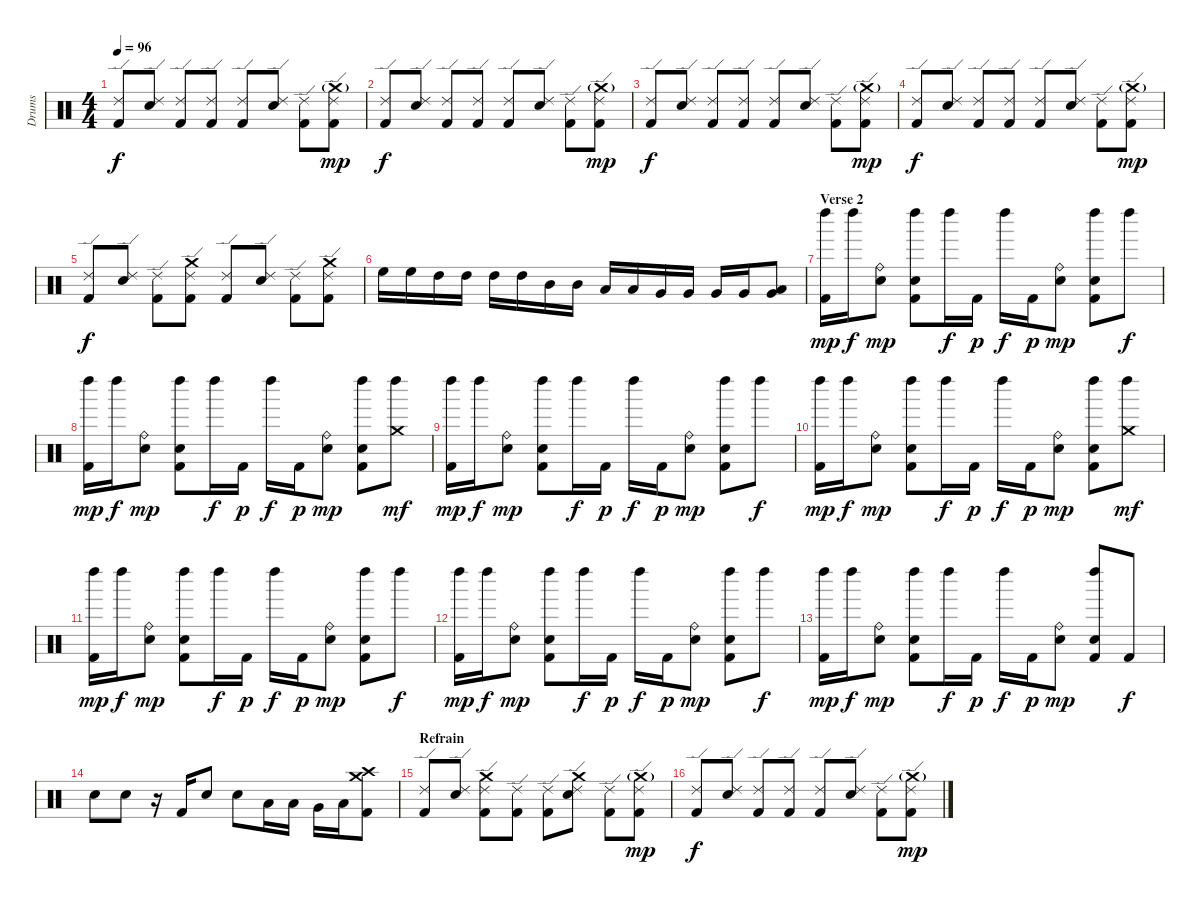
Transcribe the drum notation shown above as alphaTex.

\track ("Drums" "Drums") {instrument percussion}
\staff {score}
\articulation defaults
\ts (4 4)
\tempo 96
\clef neutral
\ks c
("Ride (edge) 2" "Kick (hit) 2").8{dy f} ("Ride (edge) 2" "Snare (hit) 2").8 ("Ride (edge) 2" "Kick (hit) 2").8 ("Ride (edge) 2" "Kick (hit) 2").8 ("Ride (edge) 2" "Kick (hit) 2").8 ("Ride (edge) 2" "Snare (hit) 2").8 ("Ride (edge) 2" "Kick (hit) 2").8 ("Crash medium (hit)"{g} "Ride (edge) 2" "Kick (hit) 2").8{dy mp} |
("Ride (edge) 2" "Kick (hit) 2").8{dy f} ("Ride (edge) 2" "Snare (hit) 2").8 ("Ride (edge) 2" "Kick (hit) 2").8 ("Ride (edge) 2" "Kick (hit) 2").8 ("Ride (edge) 2" "Kick (hit) 2").8 ("Ride (edge) 2" "Snare (hit) 2").8 ("Ride (edge) 2" "Kick (hit) 2").8 ("Crash medium (hit)"{g} "Ride (edge) 2" "Kick (hit) 2").8{dy mp} |
("Ride (edge) 2" "Kick (hit) 2").8{dy f} ("Ride (edge) 2" "Snare (hit) 2").8 ("Ride (edge) 2" "Kick (hit) 2").8 ("Ride (edge) 2" "Kick (hit) 2").8 ("Ride (edge) 2" "Kick (hit) 2").8 ("Ride (edge) 2" "Snare (hit) 2").8 ("Ride (edge) 2" "Kick (hit) 2").8 ("Crash medium (hit)"{g} "Ride (edge) 2" "Kick (hit) 2").8{dy mp} |
("Ride (edge) 2" "Kick (hit) 2").8{dy f} ("Ride (edge) 2" "Snare (hit) 2").8 ("Ride (edge) 2" "Kick (hit) 2").8 ("Ride (edge) 2" "Kick (hit) 2").8 ("Ride (edge) 2" "Kick (hit) 2").8 ("Ride (edge) 2" "Snare (hit) 2").8 ("Ride (edge) 2" "Kick (hit) 2").8 ("Crash medium (hit)"{g} "Ride (edge) 2" "Kick (hit) 2").8{dy mp} |
("Ride (edge) 2" "Kick (hit) 2").8{dy f} ("Ride (edge) 2" "Snare (hit) 2").8 ("Ride (edge) 2" "Kick (hit) 2").8 ("Crash medium (hit)" "Ride (edge) 2" "Kick (hit) 2").8 ("Ride (edge) 2" "Kick (hit) 2").8 ("Ride (edge) 2" "Snare (hit) 2").8 ("Ride (edge) 2" "Kick (hit) 2").8 ("Crash medium (hit)" "Ride (edge) 2" "Kick (hit) 2").8 |
"High Floor Tom (hit)".16{balance 0} "High Floor Tom (hit)".16 "High Tom (hit)".16{balance 3} "High Tom (hit)".16 "High Tom (hit)".16{balance 6} "High Tom (hit)".16 "Mid Tom (hit)".16{balance 8} "Mid Tom (hit)".16 "Low Tom (hit)".16{balance 8} "Low Tom (hit)".16 "Very Low Tom (hit)".16{balance 10} "Very Low Tom (hit)".16 "Very Low Tom (hit)".16{balance 13} "Very Low Tom (hit)".16 ("Low Floor Tom (hit)" "Very Low Tom (hit)").8{balance 16} |
\section ("" "Verse 2")
("Left Maraca (hit)" "Kick (hit) 2").16{dy mp balance 8} "Left Maraca (hit)".16{dy f} ("Snare (hit) 2" "Ride (bell)").8{dy mp} ("Left Maraca (hit)" "Electric Snare (hit)" "Kick (hit) 2").8 "Left Maraca (hit)".16{dy f} "Kick (hit) 2".16{dy p} "Left Maraca (hit)".16{dy f} "Kick (hit) 2".16{dy p} ("Snare (hit) 2" "Ride (bell)").8{dy mp} ("Left Maraca (hit)" "Electric Snare (hit)" "Kick (hit) 2").8 "Left Maraca (hit)".8{dy f} |
("Left Maraca (hit)" "Kick (hit) 2").16{dy mp} "Left Maraca (hit)".16{dy f} ("Snare (hit) 2" "Ride (bell)").8{dy mp} ("Left Maraca (hit)" "Electric Snare (hit)" "Kick (hit) 2").8 "Left Maraca (hit)".16{dy f} "Kick (hit) 2".16{dy p} "Left Maraca (hit)".16{dy f} "Kick (hit) 2".16{dy p} ("Snare (hit) 2" "Ride (bell)").8{dy mp} ("Left Maraca (hit)" "Electric Snare (hit)" "Kick (hit) 2").8 ("Crash medium (hit)" "Left Maraca (hit)").8{dy mf} |
("Left Maraca (hit)" "Kick (hit) 2").16{dy mp} "Left Maraca (hit)".16{dy f} ("Snare (hit) 2" "Ride (bell)").8{dy mp} ("Left Maraca (hit)" "Electric Snare (hit)" "Kick (hit) 2").8 "Left Maraca (hit)".16{dy f} "Kick (hit) 2".16{dy p} "Left Maraca (hit)".16{dy f} "Kick (hit) 2".16{dy p} ("Snare (hit) 2" "Ride (bell)").8{dy mp} ("Left Maraca (hit)" "Electric Snare (hit)" "Kick (hit) 2").8 "Left Maraca (hit)".8{dy f} |
("Left Maraca (hit)" "Kick (hit) 2").16{dy mp} "Left Maraca (hit)".16{dy f} ("Snare (hit) 2" "Ride (bell)").8{dy mp} ("Left Maraca (hit)" "Electric Snare (hit)" "Kick (hit) 2").8 "Left Maraca (hit)".16{dy f} "Kick (hit) 2".16{dy p} "Left Maraca (hit)".16{dy f} "Kick (hit) 2".16{dy p} ("Snare (hit) 2" "Ride (bell)").8{dy mp} ("Left Maraca (hit)" "Electric Snare (hit)" "Kick (hit) 2").8 ("Crash medium (hit)" "Left Maraca (hit)").8{dy mf} |
("Left Maraca (hit)" "Kick (hit) 2").16{dy mp} "Left Maraca (hit)".16{dy f} ("Snare (hit) 2" "Ride (bell)").8{dy mp} ("Left Maraca (hit)" "Electric Snare (hit)" "Kick (hit) 2").8 "Left Maraca (hit)".16{dy f} "Kick (hit) 2".16{dy p} "Left Maraca (hit)".16{dy f} "Kick (hit) 2".16{dy p} ("Snare (hit) 2" "Ride (bell)").8{dy mp} ("Left Maraca (hit)" "Electric Snare (hit)" "Kick (hit) 2").8 "Left Maraca (hit)".8{dy f} |
("Left Maraca (hit)" "Kick (hit) 2").16{dy mp} "Left Maraca (hit)".16{dy f} ("Snare (hit) 2" "Ride (bell)").8{dy mp} ("Left Maraca (hit)" "Electric Snare (hit)" "Kick (hit) 2").8 "Left Maraca (hit)".16{dy f} "Kick (hit) 2".16{dy p} "Left Maraca (hit)".16{dy f} "Kick (hit) 2".16{dy p} ("Snare (hit) 2" "Ride (bell)").8{dy mp} ("Left Maraca (hit)" "Electric Snare (hit)" "Kick (hit) 2").8 "Left Maraca (hit)".8{dy f} |
("Left Maraca (hit)" "Kick (hit) 2").16{dy mp} "Left Maraca (hit)".16{dy f} ("Snare (hit) 2" "Ride (bell)").8{dy mp} ("Left Maraca (hit)" "Electric Snare (hit)" "Kick (hit) 2").8 "Left Maraca (hit)".16{dy f} "Kick (hit) 2".16{dy p} "Left Maraca (hit)".16{dy f} "Kick (hit) 2".16{dy p} ("Snare (hit) 2" "Ride (bell)").8{dy mp} ("Left Maraca (hit)" "Electric Snare (hit)" "Kick (hit) 2").8 "Kick (hit) 2".8{dy f} |
"Snare (hit) 2".8 "Snare (hit) 2".8 r.16 "Kick (hit) 2".16 "Snare (hit) 2".8 "Snare (hit) 2".8 "Low Tom (hit)".16 "Low Tom (hit)".16 "Very Low Tom (hit)".16 "Low Floor Tom (hit)".16 ("Crash medium (hit)" "Crash high (hit)" "Kick (hit) 2").8 |
\section ("" "Refrain")
("Ride (edge) 2" "Kick (hit) 2").8 ("Ride (edge) 2" "Snare (hit) 2").8 ("Crash medium (hit)" "Ride (edge) 2" "Kick (hit) 2").8 ("Ride (edge) 2" "Kick (hit) 2").8 ("Ride (edge) 2" "Kick (hit) 2").8 ("Crash medium (hit)" "Ride (edge) 2" "Snare (hit) 2").8 ("Ride (edge) 2" "Kick (hit) 2").8 ("Crash medium (hit)"{g} "Ride (edge) 2" "Kick (hit) 2").8{dy mp} |
("Ride (edge) 2" "Kick (hit) 2").8{dy f} ("Ride (edge) 2" "Snare (hit) 2").8 ("Ride (edge) 2" "Kick (hit) 2").8 ("Ride (edge) 2" "Kick (hit) 2").8 ("Ride (edge) 2" "Kick (hit) 2").8 ("Ride (edge) 2" "Snare (hit) 2").8 ("Ride (edge) 2" "Kick (hit) 2").8 ("Crash medium (hit)"{g} "Ride (edge) 2" "Kick (hit) 2").8{dy mp}
